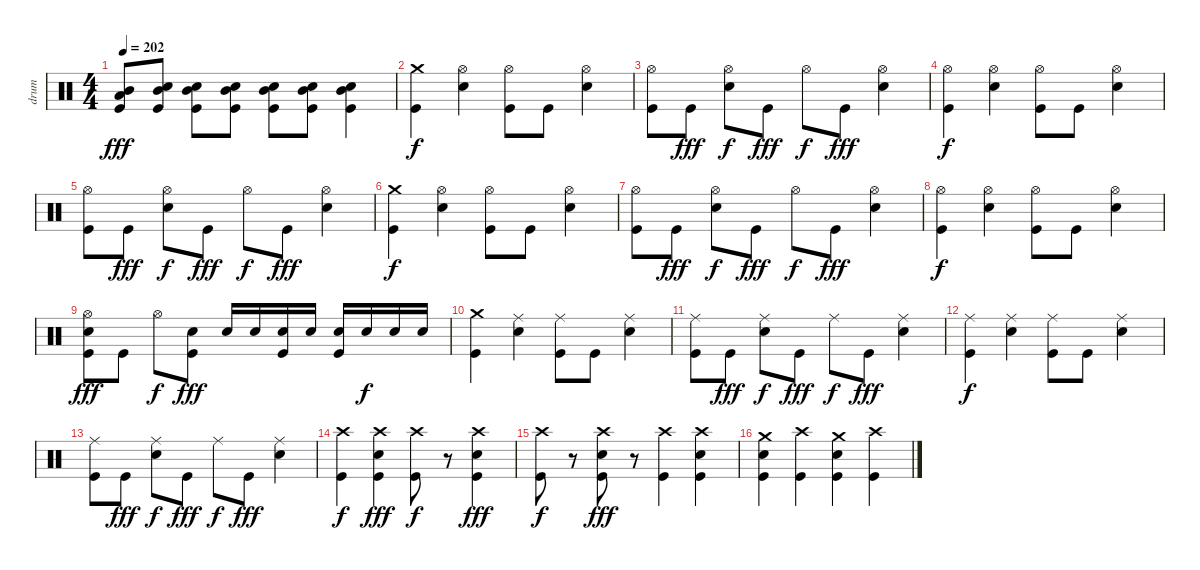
\track ("drum" "drum") {instrument percussion}
\staff {score}
\articulation defaults
\ts (4 4)
\tempo 202
\clef neutral
\ks c
("Low Floor Tom (hit)" "Mid Tom (hit)" "Kick (hit)").8{dy fff} ("Electric Snare (hit)" "Mid Tom (hit)" "Kick (hit)").8 ("Electric Snare (hit)" "Mid Tom (hit)" "Kick (hit)").8 ("Electric Snare (hit)" "Mid Tom (hit)" "Kick (hit)").8 ("Electric Snare (hit)" "Mid Tom (hit)" "Kick (hit)").8 ("Electric Snare (hit)" "Mid Tom (hit)" "Kick (hit)").8 ("Electric Snare (hit)" "Mid Tom (hit)" "Kick (hit)").4 |
("Crash medium (hit)" "Kick (hit)").4{dy f} ("Hi-Hat (open)" "Electric Snare (hit)").4 ("Hi-Hat (open)" "Kick (hit)").8 "Kick (hit)".8 ("Hi-Hat (open)" "Electric Snare (hit)").4 |
("Hi-Hat (open)" "Kick (hit)").8 "Kick (hit)".8{dy fff} ("Hi-Hat (open)" "Electric Snare (hit)").8{dy f} "Kick (hit)".8{dy fff} "Hi-Hat (open)".8{dy f} "Kick (hit)".8{dy fff} ("Hi-Hat (open)" "Electric Snare (hit)").4 |
("Hi-Hat (open)" "Kick (hit)").4{dy f} ("Hi-Hat (open)" "Electric Snare (hit)").4 ("Hi-Hat (open)" "Kick (hit)").8 "Kick (hit)".8 ("Hi-Hat (open)" "Electric Snare (hit)").4 |
("Hi-Hat (open)" "Kick (hit)").8 "Kick (hit)".8{dy fff} ("Hi-Hat (open)" "Electric Snare (hit)").8{dy f} "Kick (hit)".8{dy fff} "Hi-Hat (open)".8{dy f} "Kick (hit)".8{dy fff} ("Hi-Hat (open)" "Electric Snare (hit)").4 |
("Crash medium (hit)" "Kick (hit)").4{dy f} ("Hi-Hat (open)" "Electric Snare (hit)").4 ("Hi-Hat (open)" "Kick (hit)").8 "Kick (hit)".8 ("Hi-Hat (open)" "Electric Snare (hit)").4 |
("Hi-Hat (open)" "Kick (hit)").8 "Kick (hit)".8{dy fff} ("Hi-Hat (open)" "Electric Snare (hit)").8{dy f} "Kick (hit)".8{dy fff} "Hi-Hat (open)".8{dy f} "Kick (hit)".8{dy fff} ("Hi-Hat (open)" "Electric Snare (hit)").4 |
("Hi-Hat (open)" "Kick (hit)").4{dy f} ("Hi-Hat (open)" "Electric Snare (hit)").4 ("Hi-Hat (open)" "Kick (hit)").8 "Kick (hit)".8 ("Hi-Hat (open)" "Electric Snare (hit)").4 |
("Hi-Hat (open)" "Electric Snare (hit)" "Kick (hit)").8{dy fff} "Kick (hit)".8 "Hi-Hat (open)".8{dy f} ("Electric Snare (hit)" "Kick (hit)").8{dy fff} "Electric Snare (hit)".16 "Electric Snare (hit)".16 ("Electric Snare (hit)" "Kick (hit)").16 "Electric Snare (hit)".16 ("Electric Snare (hit)" "Kick (hit)").16 "Electric Snare (hit)".16{dy f} "Electric Snare (hit)".16 "Electric Snare (hit)".16 |
("Crash medium (hit)" "Kick (hit)").4 ("Ride (middle)" "Electric Snare (hit)").4 ("Ride (middle)" "Kick (hit)").8 "Kick (hit)".8 ("Ride (middle)" "Electric Snare (hit)").4 |
("Ride (middle)" "Kick (hit)").8 "Kick (hit)".8{dy fff} ("Ride (middle)" "Electric Snare (hit)").8{dy f} "Kick (hit)".8{dy fff} "Ride (middle)".8{dy f} "Kick (hit)".8{dy fff} ("Ride (middle)" "Electric Snare (hit)").4 |
("Ride (middle)" "Kick (hit)").4{dy f} ("Ride (middle)" "Electric Snare (hit)").4 ("Ride (middle)" "Kick (hit)").8 "Kick (hit)".8 ("Ride (middle)" "Electric Snare (hit)").4 |
("Ride (middle)" "Kick (hit)").8 "Kick (hit)".8{dy fff} ("Ride (middle)" "Electric Snare (hit)").8{dy f} "Kick (hit)".8{dy fff} "Ride (middle)".8{dy f} "Kick (hit)".8{dy fff} ("Ride (middle)" "Electric Snare (hit)").4 |
("Crash high (hit)" "Kick (hit)").4{dy f} ("Crash high (hit)" "Electric Snare (hit)" "Kick (hit)").4{dy fff} ("Crash high (hit)" "Kick (hit)").8{dy f} r.8 ("Crash high (hit)" "Electric Snare (hit)" "Kick (hit)").4{dy fff} |
("Crash high (hit)" "Kick (hit)").8{dy f} r.8 ("Crash high (hit)" "Electric Snare (hit)" "Kick (hit)").8{dy fff} r.8 ("Crash high (hit)" "Kick (hit)").4 ("Crash high (hit)" "Electric Snare (hit)" "Kick (hit)").4 |
("Crash medium (hit)" "Electric Snare (hit)" "Kick (hit)").4 ("Crash high (hit)" "Kick (hit)").4 ("Crash medium (hit)" "Electric Snare (hit)" "Kick (hit)").4 ("Crash high (hit)" "Kick (hit)").4
